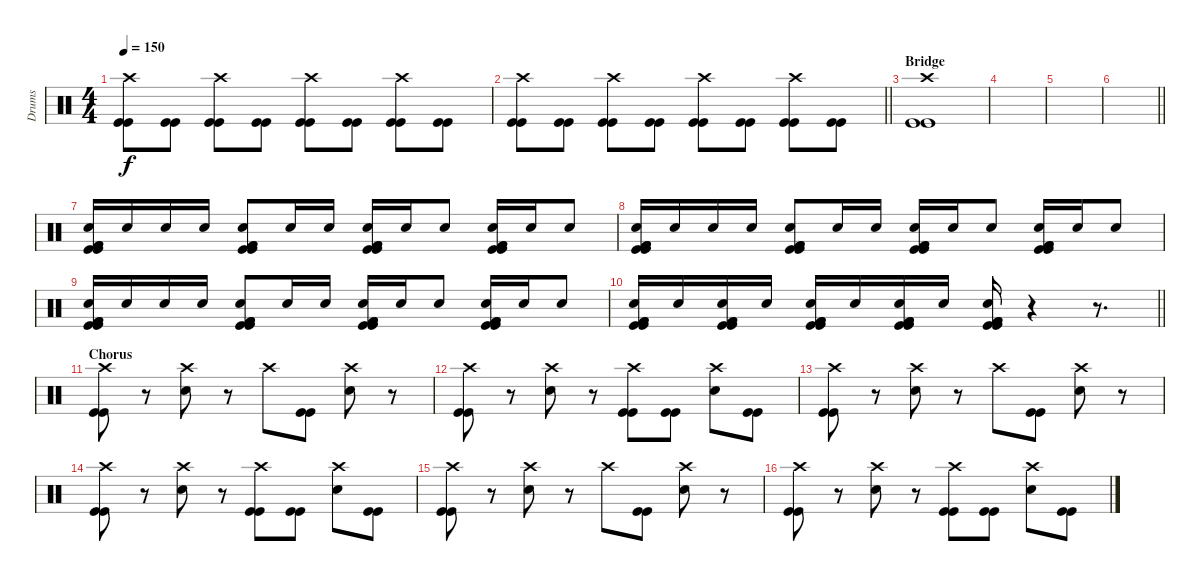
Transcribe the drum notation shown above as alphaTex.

\track ("Drums" "Drums") {instrument percussion}
\staff {score}
\articulation defaults
\ts (4 4)
\tempo 150
\clef neutral
\ks c
("Crash high (hit)" "Kick (hit)" "Kick (hit)").8{dy f} ("Kick (hit)" "Kick (hit)").8 ("Crash high (hit)" "Kick (hit)" "Kick (hit)").8 ("Kick (hit)" "Kick (hit)").8 ("Crash high (hit)" "Kick (hit)" "Kick (hit)").8 ("Kick (hit)" "Kick (hit)").8 ("Crash high (hit)" "Kick (hit)" "Kick (hit)").8 ("Kick (hit)" "Kick (hit)").8 |
\barLineRight lightlight
("Crash high (hit)" "Kick (hit)" "Kick (hit)").8 ("Kick (hit)" "Kick (hit)").8 ("Crash high (hit)" "Kick (hit)" "Kick (hit)").8 ("Kick (hit)" "Kick (hit)").8 ("Crash high (hit)" "Kick (hit)" "Kick (hit)").8 ("Kick (hit)" "Kick (hit)").8 ("Crash high (hit)" "Kick (hit)" "Kick (hit)").8 ("Kick (hit)" "Kick (hit)").8 |
\section ("" "Bridge")
("Crash high (hit)" "Kick (hit)" "Kick (hit)").1 |
|
|
\barLineRight lightlight
|
("Snare (hit) 2" "Kick (hit)" "Kick (hit)" "Kick (hit) 2" "Kick (hit) 2").16 "Snare (hit) 2".16 "Snare (hit) 2".16 "Snare (hit) 2".16 ("Snare (hit) 2" "Kick (hit)" "Kick (hit)" "Kick (hit) 2" "Kick (hit) 2").8 "Snare (hit) 2".16 "Snare (hit) 2".16 ("Snare (hit) 2" "Kick (hit)" "Kick (hit)" "Kick (hit) 2" "Kick (hit) 2").16 "Snare (hit) 2".16 "Snare (hit) 2".8 ("Snare (hit) 2" "Kick (hit)" "Kick (hit)" "Kick (hit) 2" "Kick (hit) 2").16 "Snare (hit) 2".16 "Snare (hit) 2".8 |
("Snare (hit) 2" "Kick (hit)" "Kick (hit)" "Kick (hit) 2" "Kick (hit) 2").16 "Snare (hit) 2".16 "Snare (hit) 2".16 "Snare (hit) 2".16 ("Snare (hit) 2" "Kick (hit)" "Kick (hit)" "Kick (hit) 2" "Kick (hit) 2").8 "Snare (hit) 2".16 "Snare (hit) 2".16 ("Snare (hit) 2" "Kick (hit)" "Kick (hit)" "Kick (hit) 2" "Kick (hit) 2").16 "Snare (hit) 2".16 "Snare (hit) 2".8 ("Snare (hit) 2" "Kick (hit)" "Kick (hit)" "Kick (hit) 2" "Kick (hit) 2").16 "Snare (hit) 2".16 "Snare (hit) 2".8 |
("Snare (hit) 2" "Kick (hit)" "Kick (hit)" "Kick (hit) 2" "Kick (hit) 2").16 "Snare (hit) 2".16 "Snare (hit) 2".16 "Snare (hit) 2".16 ("Snare (hit) 2" "Kick (hit)" "Kick (hit)" "Kick (hit) 2" "Kick (hit) 2").8 "Snare (hit) 2".16 "Snare (hit) 2".16 ("Snare (hit) 2" "Kick (hit)" "Kick (hit)" "Kick (hit) 2" "Kick (hit) 2").16 "Snare (hit) 2".16 "Snare (hit) 2".8 ("Snare (hit) 2" "Kick (hit)" "Kick (hit)" "Kick (hit) 2" "Kick (hit) 2").16 "Snare (hit) 2".16 "Snare (hit) 2".8 |
\barLineRight lightlight
("Snare (hit) 2" "Kick (hit)" "Kick (hit)" "Kick (hit) 2" "Kick (hit) 2").16 "Snare (hit) 2".16 ("Snare (hit) 2" "Kick (hit)" "Kick (hit)" "Kick (hit) 2" "Kick (hit) 2").16 "Snare (hit) 2".16 ("Snare (hit) 2" "Kick (hit)" "Kick (hit)" "Kick (hit) 2" "Kick (hit) 2").16 "Snare (hit) 2".16 ("Snare (hit) 2" "Kick (hit)" "Kick (hit)" "Kick (hit) 2" "Kick (hit) 2").16 "Snare (hit) 2".16 ("Snare (hit) 2" "Kick (hit)" "Kick (hit)" "Kick (hit) 2" "Kick (hit) 2").16 r.4 r.8{d} |
\section ("" "Chorus")
("Crash high (hit)" "Kick (hit)" "Kick (hit)").8 r.8 ("Crash high (hit)" "Snare (hit) 2").8 r.8 "Crash high (hit)".8 ("Kick (hit)" "Kick (hit)").8 ("Crash high (hit)" "Snare (hit) 2").8 r.8 |
("Crash high (hit)" "Kick (hit)" "Kick (hit)").8 r.8 ("Crash high (hit)" "Snare (hit) 2").8 r.8 ("Crash high (hit)" "Kick (hit)" "Kick (hit)").8 ("Kick (hit)" "Kick (hit)").8 ("Crash high (hit)" "Snare (hit) 2").8 ("Kick (hit)" "Kick (hit)").8 |
("Crash high (hit)" "Kick (hit)" "Kick (hit)").8 r.8 ("Crash high (hit)" "Snare (hit) 2").8 r.8 "Crash high (hit)".8 ("Kick (hit)" "Kick (hit)").8 ("Crash high (hit)" "Snare (hit) 2").8 r.8 |
("Crash high (hit)" "Kick (hit)" "Kick (hit)").8 r.8 ("Crash high (hit)" "Snare (hit) 2").8 r.8 ("Crash high (hit)" "Kick (hit)" "Kick (hit)").8 ("Kick (hit)" "Kick (hit)").8 ("Crash high (hit)" "Snare (hit) 2").8 ("Kick (hit)" "Kick (hit)").8 |
("Crash high (hit)" "Kick (hit)" "Kick (hit)").8 r.8 ("Crash high (hit)" "Snare (hit) 2").8 r.8 "Crash high (hit)".8 ("Kick (hit)" "Kick (hit)").8 ("Crash high (hit)" "Snare (hit) 2").8 r.8 |
("Crash high (hit)" "Kick (hit)" "Kick (hit)").8 r.8 ("Crash high (hit)" "Snare (hit) 2").8 r.8 ("Crash high (hit)" "Kick (hit)" "Kick (hit)").8 ("Kick (hit)" "Kick (hit)").8 ("Crash high (hit)" "Snare (hit) 2").8 ("Kick (hit)" "Kick (hit)").8
